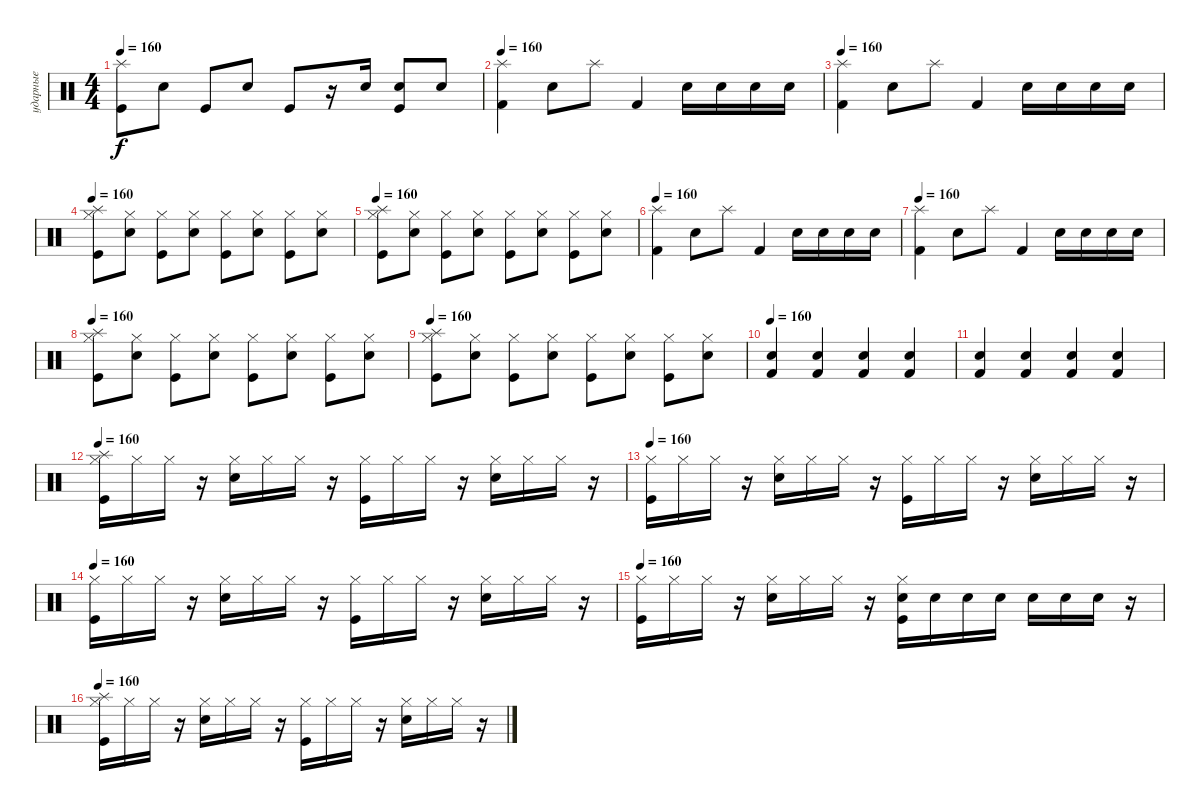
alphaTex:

\track ("ударные" "ударные") {instrument percussion}
\staff {score}
\articulation defaults
\ts (4 4)
\tempo 160
\clef neutral
\ks c
("Splash (hit)" "Kick (hit)").8{dy f} "Electric Snare (hit)".8 "Kick (hit)".8 "Electric Snare (hit)".8 "Kick (hit)".8 r.16 "Electric Snare (hit)".16 ("Electric Snare (hit)" "Kick (hit)").8 "Electric Snare (hit)".8 |
\tempo 160
("Splash (hit)" "Kick (hit) 2").4 "Electric Snare (hit)".8 "Splash (hit)".8 "Kick (hit) 2".4 "Electric Snare (hit)".16 "Snare (hit) 2".16 "Snare (hit) 2".16 "Snare (hit) 2".16 |
\tempo 160
("Splash (hit)" "Kick (hit) 2").4 "Electric Snare (hit)".8 "Splash (hit)".8 "Kick (hit) 2".4 "Electric Snare (hit)".16 "Snare (hit) 2".16 "Snare (hit) 2".16 "Snare (hit) 2".16 |
\tempo 160
("Splash (hit)" "Kick (hit)" "Hi-Hat (closed)").8 ("Electric Snare (hit)" "Hi-Hat (closed)").8 ("Kick (hit)" "Hi-Hat (closed)").8 ("Electric Snare (hit)" "Hi-Hat (closed)").8 ("Kick (hit)" "Hi-Hat (closed)").8 ("Electric Snare (hit)" "Hi-Hat (closed)").8 ("Kick (hit)" "Hi-Hat (closed)").8 ("Electric Snare (hit)" "Hi-Hat (closed)").8 |
\tempo 160
("Splash (hit)" "Kick (hit)" "Hi-Hat (closed)").8 ("Electric Snare (hit)" "Hi-Hat (closed)").8 ("Kick (hit)" "Hi-Hat (closed)").8 ("Electric Snare (hit)" "Hi-Hat (closed)").8 ("Kick (hit)" "Hi-Hat (closed)").8 ("Electric Snare (hit)" "Hi-Hat (closed)").8 ("Kick (hit)" "Hi-Hat (closed)").8 ("Electric Snare (hit)" "Hi-Hat (closed)").8 |
\tempo 160
("Splash (hit)" "Kick (hit) 2").4 "Electric Snare (hit)".8 "Splash (hit)".8 "Kick (hit) 2".4 "Electric Snare (hit)".16 "Snare (hit) 2".16 "Snare (hit) 2".16 "Snare (hit) 2".16 |
\tempo 160
("Splash (hit)" "Kick (hit) 2").4 "Electric Snare (hit)".8 "Splash (hit)".8 "Kick (hit) 2".4 "Electric Snare (hit)".16 "Snare (hit) 2".16 "Snare (hit) 2".16 "Snare (hit) 2".16 |
\tempo 160
("Splash (hit)" "Kick (hit)" "Hi-Hat (closed)").8 ("Electric Snare (hit)" "Hi-Hat (closed)").8 ("Kick (hit)" "Hi-Hat (closed)").8 ("Electric Snare (hit)" "Hi-Hat (closed)").8 ("Kick (hit)" "Hi-Hat (closed)").8 ("Electric Snare (hit)" "Hi-Hat (closed)").8 ("Kick (hit)" "Hi-Hat (closed)").8 ("Electric Snare (hit)" "Hi-Hat (closed)").8 |
\tempo 160
("Splash (hit)" "Kick (hit)" "Hi-Hat (closed)").8 ("Electric Snare (hit)" "Hi-Hat (closed)").8 ("Kick (hit)" "Hi-Hat (closed)").8 ("Electric Snare (hit)" "Hi-Hat (closed)").8 ("Kick (hit)" "Hi-Hat (closed)").8 ("Electric Snare (hit)" "Hi-Hat (closed)").8 ("Kick (hit)" "Hi-Hat (closed)").8 ("Electric Snare (hit)" "Hi-Hat (closed)").8 |
\tempo 160
("Kick (hit) 2" "Electric Snare (hit)").4 ("Kick (hit) 2" "Electric Snare (hit)").4 ("Kick (hit) 2" "Electric Snare (hit)").4 ("Kick (hit) 2" "Electric Snare (hit)").4 |
("Kick (hit) 2" "Electric Snare (hit)").4 ("Kick (hit) 2" "Electric Snare (hit)").4 ("Kick (hit) 2" "Electric Snare (hit)").4 ("Kick (hit) 2" "Electric Snare (hit)").4 |
\tempo 160
("Splash (hit)" "Kick (hit)" "Hi-Hat (closed)").16 "Hi-Hat (closed)".16 "Hi-Hat (closed)".16 r.16 ("Hi-Hat (closed)" "Electric Snare (hit)").16 "Hi-Hat (closed)".16 "Hi-Hat (closed)".16 r.16 ("Kick (hit)" "Hi-Hat (closed)").16 "Hi-Hat (closed)".16 "Hi-Hat (closed)".16 r.16 ("Electric Snare (hit)" "Hi-Hat (closed)").16 "Hi-Hat (closed)".16 "Hi-Hat (closed)".16 r.16 |
\tempo 160
("Kick (hit)" "Hi-Hat (closed)").16 "Hi-Hat (closed)".16 "Hi-Hat (closed)".16 r.16 ("Hi-Hat (closed)" "Electric Snare (hit)").16 "Hi-Hat (closed)".16 "Hi-Hat (closed)".16 r.16 ("Hi-Hat (closed)" "Kick (hit)").16 "Hi-Hat (closed)".16 "Hi-Hat (closed)".16 r.16 ("Hi-Hat (closed)" "Electric Snare (hit)").16 "Hi-Hat (closed)".16 "Hi-Hat (closed)".16 r.16 |
\tempo 160
("Kick (hit)" "Hi-Hat (closed)").16 "Hi-Hat (closed)".16 "Hi-Hat (closed)".16 r.16 ("Hi-Hat (closed)" "Electric Snare (hit)").16 "Hi-Hat (closed)".16 "Hi-Hat (closed)".16 r.16 ("Hi-Hat (closed)" "Kick (hit)").16 "Hi-Hat (closed)".16 "Hi-Hat (closed)".16 r.16 ("Hi-Hat (closed)" "Electric Snare (hit)").16 "Hi-Hat (closed)".16 "Hi-Hat (closed)".16 r.16 |
\tempo 160
("Kick (hit)" "Hi-Hat (closed)").16 "Hi-Hat (closed)".16 "Hi-Hat (closed)".16 r.16 ("Hi-Hat (closed)" "Electric Snare (hit)").16 "Hi-Hat (closed)".16 "Hi-Hat (closed)".16 r.16 ("Hi-Hat (closed)" "Electric Snare (hit)" "Kick (hit)").16 "Electric Snare (hit)".16 "Electric Snare (hit)".16 "Electric Snare (hit)".16 "Snare (hit) 2".16 "Snare (hit) 2".16 "Snare (hit) 2".16 r.16 |
\tempo 160
("Splash (hit)" "Kick (hit)" "Hi-Hat (closed)").16 "Hi-Hat (closed)".16 "Hi-Hat (closed)".16 r.16 ("Hi-Hat (closed)" "Electric Snare (hit)").16 "Hi-Hat (closed)".16 "Hi-Hat (closed)".16 r.16 ("Kick (hit)" "Hi-Hat (closed)").16 "Hi-Hat (closed)".16 "Hi-Hat (closed)".16 r.16 ("Electric Snare (hit)" "Hi-Hat (closed)").16 "Hi-Hat (closed)".16 "Hi-Hat (closed)".16 r.16
